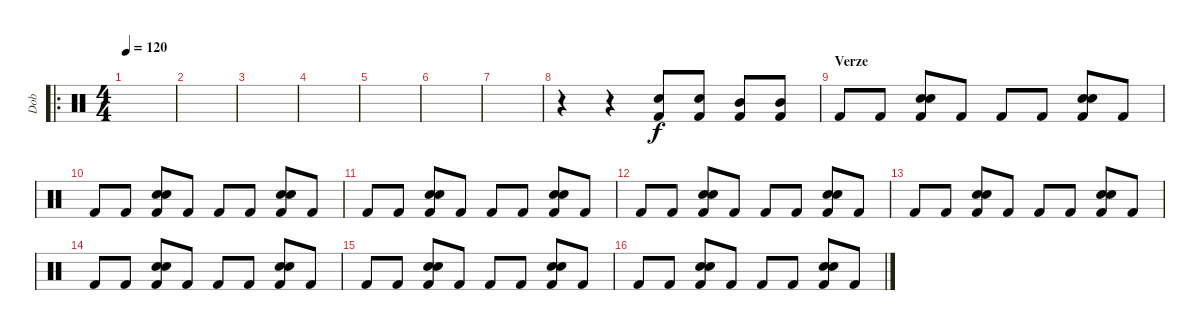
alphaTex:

\track ("Dob" "Dob") {instrument percussion}
\staff {score}
\articulation defaults
\ro
\ts (4 4)
\tempo 120
\clef neutral
\ks c
|
|
|
|
|
|
|
r.4 r.4 ("Snare (hit) 2" "Kick (hit) 2").8 ("Snare (hit) 2" "Kick (hit) 2").8 ("Mid Tom (hit)" "Kick (hit) 2").8 ("Mid Tom (hit)" "Kick (hit) 2").8 |
\section ("" "Verze")
"Kick (hit) 2".8 "Kick (hit) 2".8 ("Snare (hit) 2" "Snare (hit) 2" "Kick (hit) 2").8 "Kick (hit) 2".8 "Kick (hit) 2".8 "Kick (hit) 2".8 ("Snare (hit) 2" "Snare (hit) 2" "Kick (hit) 2").8 "Kick (hit) 2".8 |
"Kick (hit) 2".8 "Kick (hit) 2".8 ("Snare (hit) 2" "Snare (hit) 2" "Kick (hit) 2").8 "Kick (hit) 2".8 "Kick (hit) 2".8 "Kick (hit) 2".8 ("Snare (hit) 2" "Snare (hit) 2" "Kick (hit) 2").8 "Kick (hit) 2".8 |
"Kick (hit) 2".8 "Kick (hit) 2".8 ("Snare (hit) 2" "Snare (hit) 2" "Kick (hit) 2").8 "Kick (hit) 2".8 "Kick (hit) 2".8 "Kick (hit) 2".8 ("Snare (hit) 2" "Snare (hit) 2" "Kick (hit) 2").8 "Kick (hit) 2".8 |
"Kick (hit) 2".8 "Kick (hit) 2".8 ("Snare (hit) 2" "Snare (hit) 2" "Kick (hit) 2").8 "Kick (hit) 2".8 "Kick (hit) 2".8 "Kick (hit) 2".8 ("Snare (hit) 2" "Snare (hit) 2" "Kick (hit) 2").8 "Kick (hit) 2".8 |
"Kick (hit) 2".8 "Kick (hit) 2".8 ("Snare (hit) 2" "Snare (hit) 2" "Kick (hit) 2").8 "Kick (hit) 2".8 "Kick (hit) 2".8 "Kick (hit) 2".8 ("Snare (hit) 2" "Snare (hit) 2" "Kick (hit) 2").8 "Kick (hit) 2".8 |
"Kick (hit) 2".8 "Kick (hit) 2".8 ("Snare (hit) 2" "Snare (hit) 2" "Kick (hit) 2").8 "Kick (hit) 2".8 "Kick (hit) 2".8 "Kick (hit) 2".8 ("Snare (hit) 2" "Snare (hit) 2" "Kick (hit) 2").8 "Kick (hit) 2".8 |
"Kick (hit) 2".8 "Kick (hit) 2".8 ("Snare (hit) 2" "Snare (hit) 2" "Kick (hit) 2").8 "Kick (hit) 2".8 "Kick (hit) 2".8 "Kick (hit) 2".8 ("Snare (hit) 2" "Snare (hit) 2" "Kick (hit) 2").8 "Kick (hit) 2".8 |
"Kick (hit) 2".8 "Kick (hit) 2".8 ("Snare (hit) 2" "Snare (hit) 2" "Kick (hit) 2").8 "Kick (hit) 2".8 "Kick (hit) 2".8 "Kick (hit) 2".8 ("Snare (hit) 2" "Snare (hit) 2" "Kick (hit) 2").8 "Kick (hit) 2".8
